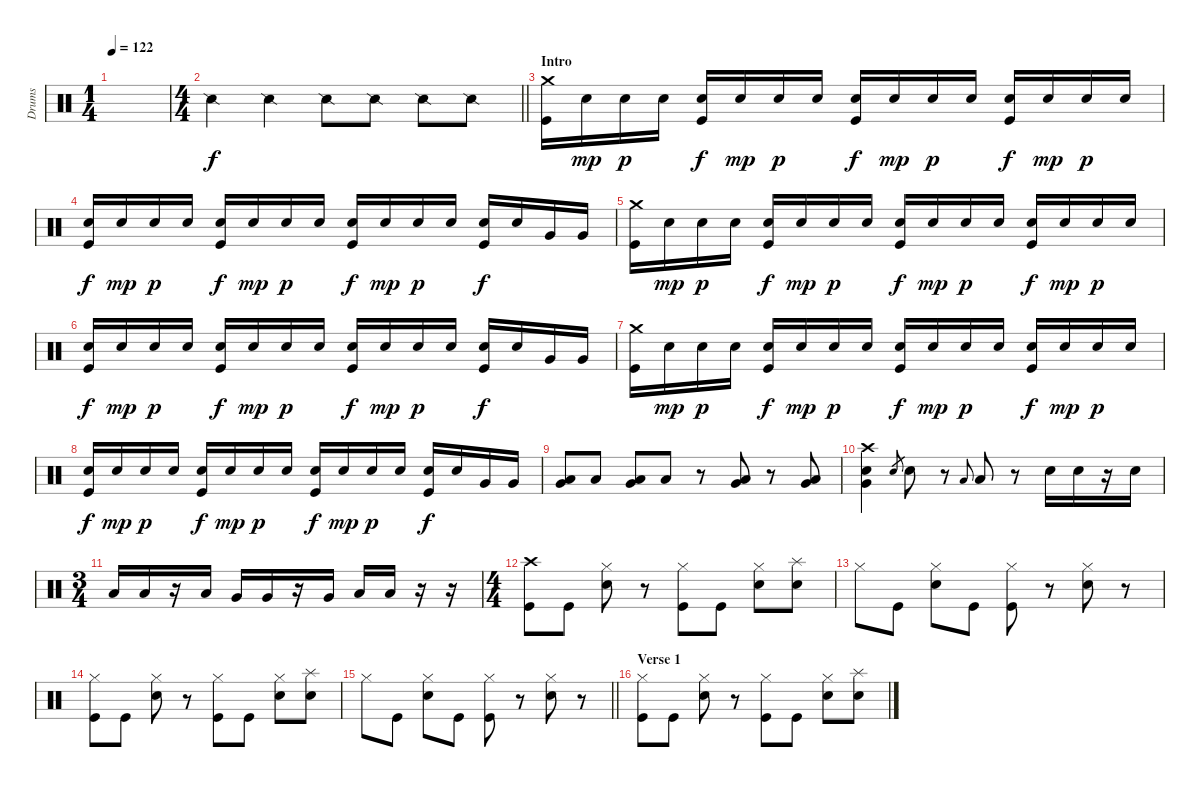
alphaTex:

\track ("Drums" "Drums") {instrument percussion}
\staff {score}
\articulation defaults
\ts (1 4)
\tempo 122
\clef neutral
\ks c
|
\ts (4 4)
\barLineRight lightlight "Snare (side stick) 2".4 "Snare (side stick) 2".4 "Snare (side stick) 2".8 "Snare (side stick) 2".8 "Snare (side stick) 2".8 "Snare (side stick) 2".8
|
\section ("" "Intro")
("Crash medium (hit)" "Kick (hit)").16 "Snare (hit) 2".16{dy mp} "Snare (hit) 2".16{dy p} "Snare (hit) 2".16 ("Snare (hit) 2" "Kick (hit)").16{dy f} "Snare (hit) 2".16{dy mp} "Snare (hit) 2".16{dy p} "Snare (hit) 2".16 ("Snare (hit) 2" "Kick (hit)").16{dy f} "Snare (hit) 2".16{dy mp} "Snare (hit) 2".16{dy p} "Snare (hit) 2".16 ("Snare (hit) 2" "Kick (hit)").16{dy f} "Snare (hit) 2".16{dy mp} "Snare (hit) 2".16{dy p} "Snare (hit) 2".16 |
("Snare (hit) 2" "Kick (hit)").16{dy f} "Snare (hit) 2".16{dy mp} "Snare (hit) 2".16{dy p} "Snare (hit) 2".16 ("Snare (hit) 2" "Kick (hit)").16{dy f} "Snare (hit) 2".16{dy mp} "Snare (hit) 2".16{dy p} "Snare (hit) 2".16 ("Snare (hit) 2" "Kick (hit)").16{dy f} "Snare (hit) 2".16{dy mp} "Snare (hit) 2".16{dy p} "Snare (hit) 2".16 ("Snare (hit) 2" "Kick (hit)").16{dy f} "Snare (hit) 2".16 "Very Low Tom (hit)".16 "Very Low Tom (hit)".16 |
("Crash medium (hit)" "Kick (hit)").16 "Snare (hit) 2".16{dy mp} "Snare (hit) 2".16{dy p} "Snare (hit) 2".16 ("Snare (hit) 2" "Kick (hit)").16{dy f} "Snare (hit) 2".16{dy mp} "Snare (hit) 2".16{dy p} "Snare (hit) 2".16 ("Snare (hit) 2" "Kick (hit)").16{dy f} "Snare (hit) 2".16{dy mp} "Snare (hit) 2".16{dy p} "Snare (hit) 2".16 ("Snare (hit) 2" "Kick (hit)").16{dy f} "Snare (hit) 2".16{dy mp} "Snare (hit) 2".16{dy p} "Snare (hit) 2".16 |
("Snare (hit) 2" "Kick (hit)").16{dy f} "Snare (hit) 2".16{dy mp} "Snare (hit) 2".16{dy p} "Snare (hit) 2".16 ("Snare (hit) 2" "Kick (hit)").16{dy f} "Snare (hit) 2".16{dy mp} "Snare (hit) 2".16{dy p} "Snare (hit) 2".16 ("Snare (hit) 2" "Kick (hit)").16{dy f} "Snare (hit) 2".16{dy mp} "Snare (hit) 2".16{dy p} "Snare (hit) 2".16 ("Snare (hit) 2" "Kick (hit)").16{dy f} "Snare (hit) 2".16 "Very Low Tom (hit)".16 "Very Low Tom (hit)".16 |
("Crash medium (hit)" "Kick (hit)").16 "Snare (hit) 2".16{dy mp} "Snare (hit) 2".16{dy p} "Snare (hit) 2".16 ("Snare (hit) 2" "Kick (hit)").16{dy f} "Snare (hit) 2".16{dy mp} "Snare (hit) 2".16{dy p} "Snare (hit) 2".16 ("Snare (hit) 2" "Kick (hit)").16{dy f} "Snare (hit) 2".16{dy mp} "Snare (hit) 2".16{dy p} "Snare (hit) 2".16 ("Snare (hit) 2" "Kick (hit)").16{dy f} "Snare (hit) 2".16{dy mp} "Snare (hit) 2".16{dy p} "Snare (hit) 2".16 |
("Snare (hit) 2" "Kick (hit)").16{dy f} "Snare (hit) 2".16{dy mp} "Snare (hit) 2".16{dy p} "Snare (hit) 2".16 ("Snare (hit) 2" "Kick (hit)").16{dy f} "Snare (hit) 2".16{dy mp} "Snare (hit) 2".16{dy p} "Snare (hit) 2".16 ("Snare (hit) 2" "Kick (hit)").16{dy f} "Snare (hit) 2".16{dy mp} "Snare (hit) 2".16{dy p} "Snare (hit) 2".16 ("Snare (hit) 2" "Kick (hit)").16{dy f} "Snare (hit) 2".16 "Very Low Tom (hit)".16 "Very Low Tom (hit)".16 |
("Low Tom (hit)" "Very Low Tom (hit)").8 "Low Tom (hit)".8 ("Low Tom (hit)" "Very Low Tom (hit)").8 "Low Tom (hit)".8 r.8 ("Low Tom (hit)" "Very Low Tom (hit)").8 r.8 ("Low Tom (hit)" "Very Low Tom (hit)").8 |
("Crash high (hit)" "Snare (hit) 2" "Very Low Tom (hit)").4 "Snare (hit) 2".8{gr} "Snare (hit) 2".8 r.8 "Low Tom (hit)".8{gr onbeat} "Low Tom (hit)".8 r.8 "Snare (hit) 2".16 "Snare (hit) 2".16 r.16 "Snare (hit) 2".16 |
\ts (3 4)
"Low Tom (hit)".16 "Low Tom (hit)".16 r.16 "Low Tom (hit)".16 "Very Low Tom (hit)".16 "Very Low Tom (hit)".16 r.16 "Very Low Tom (hit)".16 "Low Floor Tom (hit)".16 "Low Floor Tom (hit)".16 r.16 r.16 |
\ts (4 4)
("Crash high (hit)" "Kick (hit)").8 "Kick (hit)".8 ("Hi-Hat (closed)" "Snare (hit) 2").8 r.8 ("Hi-Hat (closed)" "Kick (hit)").8 "Kick (hit)".8 ("Hi-Hat (closed)" "Hand Clap (hit)").8 ("Splash (hit)" "Electric Snare (hit)").8 |
"Hi-Hat (closed)".8 "Kick (hit)".8 ("Hi-Hat (closed)" "Snare (hit) 2").8 "Kick (hit)".8 ("Hi-Hat (closed)" "Kick (hit)").8 r.8 ("Hi-Hat (closed)" "Snare (hit) 2").8 r.8 |
("Hi-Hat (closed)" "Kick (hit)").8 "Kick (hit)".8 ("Hi-Hat (closed)" "Snare (hit) 2").8 r.8 ("Hi-Hat (closed)" "Kick (hit)").8 "Kick (hit)".8 ("Hi-Hat (closed)" "Hand Clap (hit)").8 ("Splash (hit)" "Electric Snare (hit)").8 |
\barLineRight lightlight "Hi-Hat (closed)".8 "Kick (hit)".8
("Hi-Hat (closed)" "Snare (hit) 2").8 "Kick (hit)".8 ("Hi-Hat (closed)" "Kick (hit)").8 r.8 ("Hi-Hat (closed)" "Snare (hit) 2").8 r.8 |
\section ("" "Verse 1")
("Hi-Hat (closed)" "Kick (hit)").8 "Kick (hit)".8 ("Hi-Hat (closed)" "Snare (hit) 2").8 r.8 ("Hi-Hat (closed)" "Kick (hit)").8 "Kick (hit)".8 ("Hi-Hat (closed)" "Hand Clap (hit)").8 ("Splash (hit)" "Electric Snare (hit)").8
